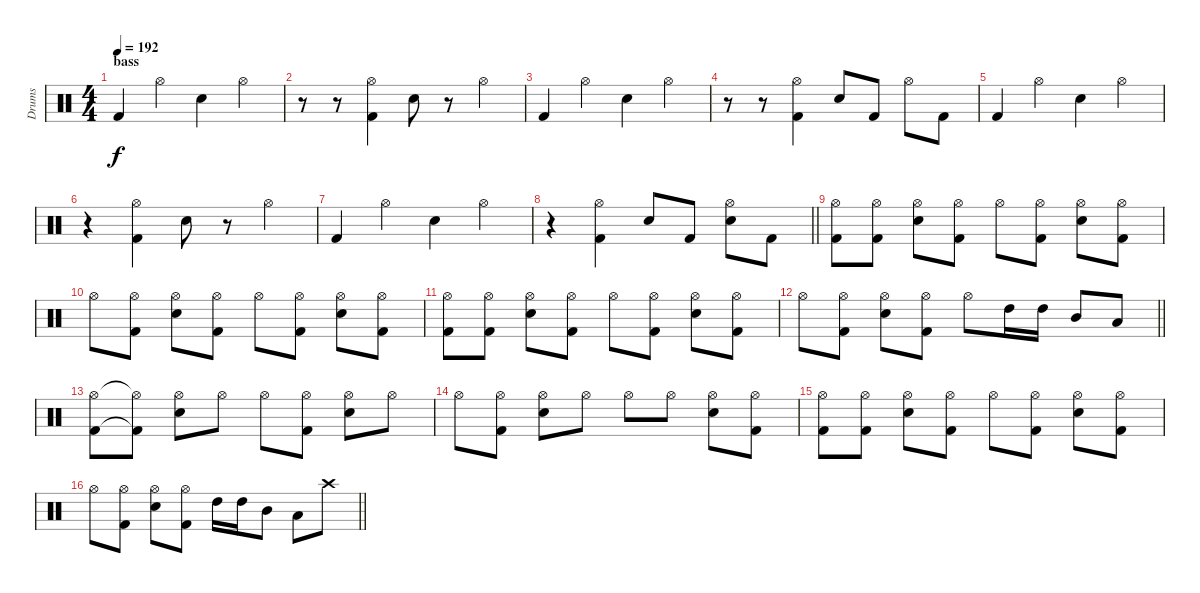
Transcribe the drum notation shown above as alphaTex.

\track ("Drums" "Drums") {instrument percussion}
\staff {score}
\articulation defaults
\ts (4 4)
\section ("" "bass")
\tempo 192
\clef neutral
\ks c "Kick (hit) 2".4{dy f} "Hi-Hat (open)".4 "Electric Snare (hit)".4 "Hi-Hat (open)".4
|
r.8 r.8 ("Hi-Hat (open)" "Kick (hit) 2").4 "Electric Snare (hit)".8 r.8 "Hi-Hat (open)".4 |
"Kick (hit) 2".4 "Hi-Hat (open)".4 "Electric Snare (hit)".4 "Hi-Hat (open)".4 |
r.8 r.8 ("Hi-Hat (open)" "Kick (hit) 2").4 "Electric Snare (hit)".8 "Kick (hit) 2".8 "Hi-Hat (open)".8 "Kick (hit) 2".8 |
"Kick (hit) 2".4 "Hi-Hat (open)".4 "Electric Snare (hit)".4 "Hi-Hat (open)".4 |
r.4 ("Hi-Hat (open)" "Kick (hit) 2").4 "Electric Snare (hit)".8 r.8 "Hi-Hat (open)".4 |
"Kick (hit) 2".4 "Hi-Hat (open)".4 "Electric Snare (hit)".4 "Hi-Hat (open)".4 |
\barLineRight lightlight
r.4 ("Hi-Hat (open)" "Kick (hit) 2").4 "Electric Snare (hit)".8 "Kick (hit) 2".8 ("Hi-Hat (open)" "Electric Snare (hit)").8 "Kick (hit) 2".8 |
\section ("" "")
("Hi-Hat (open)" "Kick (hit) 2").8 ("Hi-Hat (open)" "Kick (hit) 2").8 ("Hi-Hat (open)" "Electric Snare (hit)").8 ("Hi-Hat (open)" "Kick (hit) 2").8 "Hi-Hat (open)".8 ("Hi-Hat (open)" "Kick (hit) 2").8 ("Hi-Hat (open)" "Electric Snare (hit)").8 ("Hi-Hat (open)" "Kick (hit) 2").8 |
"Hi-Hat (open)".8 ("Hi-Hat (open)" "Kick (hit) 2").8 ("Hi-Hat (open)" "Electric Snare (hit)").8 ("Hi-Hat (open)" "Kick (hit) 2").8 "Hi-Hat (open)".8 ("Hi-Hat (open)" "Kick (hit) 2").8 ("Hi-Hat (open)" "Electric Snare (hit)").8 ("Hi-Hat (open)" "Kick (hit) 2").8 |
("Hi-Hat (open)" "Kick (hit) 2").8 ("Hi-Hat (open)" "Kick (hit) 2").8 ("Hi-Hat (open)" "Electric Snare (hit)").8 ("Hi-Hat (open)" "Kick (hit) 2").8 "Hi-Hat (open)".8 ("Hi-Hat (open)" "Kick (hit) 2").8 ("Hi-Hat (open)" "Electric Snare (hit)").8 ("Hi-Hat (open)" "Kick (hit) 2").8 |
\barLineRight lightlight "Hi-Hat (open)".8
("Hi-Hat (open)" "Kick (hit) 2").8 ("Hi-Hat (open)" "Electric Snare (hit)").8 ("Hi-Hat (open)" "Kick (hit) 2").8 "Hi-Hat (open)".8 "High Tom (hit)".16 "High Tom (hit)".16 "Mid Tom (hit)".8 "Low Tom (hit)".8 |
("Hi-Hat (open)" "Kick (hit) 2").8 ("Hi-Hat (open)"{t} "Kick (hit) 2"{t}).8 ("Hi-Hat (open)" "Electric Snare (hit)").8 "Hi-Hat (open)".8 "Hi-Hat (open)".8 ("Hi-Hat (open)" "Kick (hit) 2").8 ("Hi-Hat (open)" "Electric Snare (hit)").8 "Hi-Hat (open)".8 |
"Hi-Hat (open)".8 ("Hi-Hat (open)" "Kick (hit) 2").8 ("Hi-Hat (open)" "Electric Snare (hit)").8 "Hi-Hat (open)".8 "Hi-Hat (open)".8 "Hi-Hat (open)".8 ("Hi-Hat (open)" "Electric Snare (hit)").8 ("Hi-Hat (open)" "Kick (hit) 2").8 |
("Hi-Hat (open)" "Kick (hit) 2").8 ("Hi-Hat (open)" "Kick (hit) 2").8 ("Hi-Hat (open)" "Electric Snare (hit)").8 ("Hi-Hat (open)" "Kick (hit) 2").8 "Hi-Hat (open)".8 ("Hi-Hat (open)" "Kick (hit) 2").8 ("Hi-Hat (open)" "Electric Snare (hit)").8 ("Hi-Hat (open)" "Kick (hit) 2").8 |
\barLineRight lightlight "Hi-Hat (open)".8
("Hi-Hat (open)" "Kick (hit) 2").8 ("Hi-Hat (open)" "Electric Snare (hit)").8 ("Hi-Hat (open)" "Kick (hit) 2").8 "High Tom (hit)".16 "High Tom (hit)".16 "Mid Tom (hit)".8 "Low Tom (hit)".8 "Crash high (hit)".8
